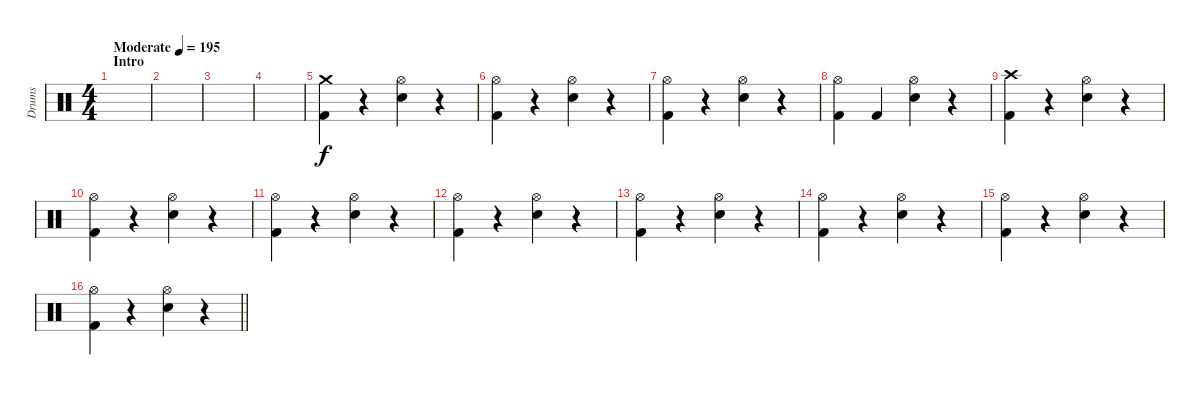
\track ("Drums" "Drums") {instrument percussion}
\staff {score}
\articulation defaults
\ts (4 4)
\section ("" "Intro")
\tempo (195 "Moderate")
\clef neutral
\ks c
|
|
|
|
("Crash medium (hit)" "Kick (hit) 2").4 r.4 ("Hi-Hat (open)" "Electric Snare (hit)").4 r.4 |
("Hi-Hat (open)" "Kick (hit) 2").4 r.4 ("Hi-Hat (open)" "Electric Snare (hit)").4 r.4 |
("Hi-Hat (open)" "Kick (hit) 2").4 r.4 ("Hi-Hat (open)" "Electric Snare (hit)").4 r.4 |
("Hi-Hat (open)" "Kick (hit) 2").4 "Kick (hit) 2".4 ("Hi-Hat (open)" "Electric Snare (hit)").4 r.4 |
("Crash high (hit)" "Kick (hit) 2").4 r.4 ("Hi-Hat (open)" "Electric Snare (hit)").4 r.4 |
("Hi-Hat (open)" "Kick (hit) 2").4 r.4 ("Hi-Hat (open)" "Electric Snare (hit)").4 r.4 |
("Hi-Hat (open)" "Kick (hit) 2").4 r.4 ("Hi-Hat (open)" "Electric Snare (hit)").4 r.4 |
("Hi-Hat (open)" "Kick (hit) 2").4 r.4 ("Hi-Hat (open)" "Electric Snare (hit)").4 r.4 |
("Hi-Hat (open)" "Kick (hit) 2").4 r.4 ("Hi-Hat (open)" "Electric Snare (hit)").4 r.4 |
("Hi-Hat (open)" "Kick (hit) 2").4 r.4 ("Hi-Hat (open)" "Electric Snare (hit)").4 r.4 |
("Hi-Hat (open)" "Kick (hit) 2").4 r.4 ("Hi-Hat (open)" "Electric Snare (hit)").4 r.4 |
\barLineRight lightlight
("Hi-Hat (open)" "Kick (hit) 2").4 r.4 ("Hi-Hat (open)" "Electric Snare (hit)").4 r.4
